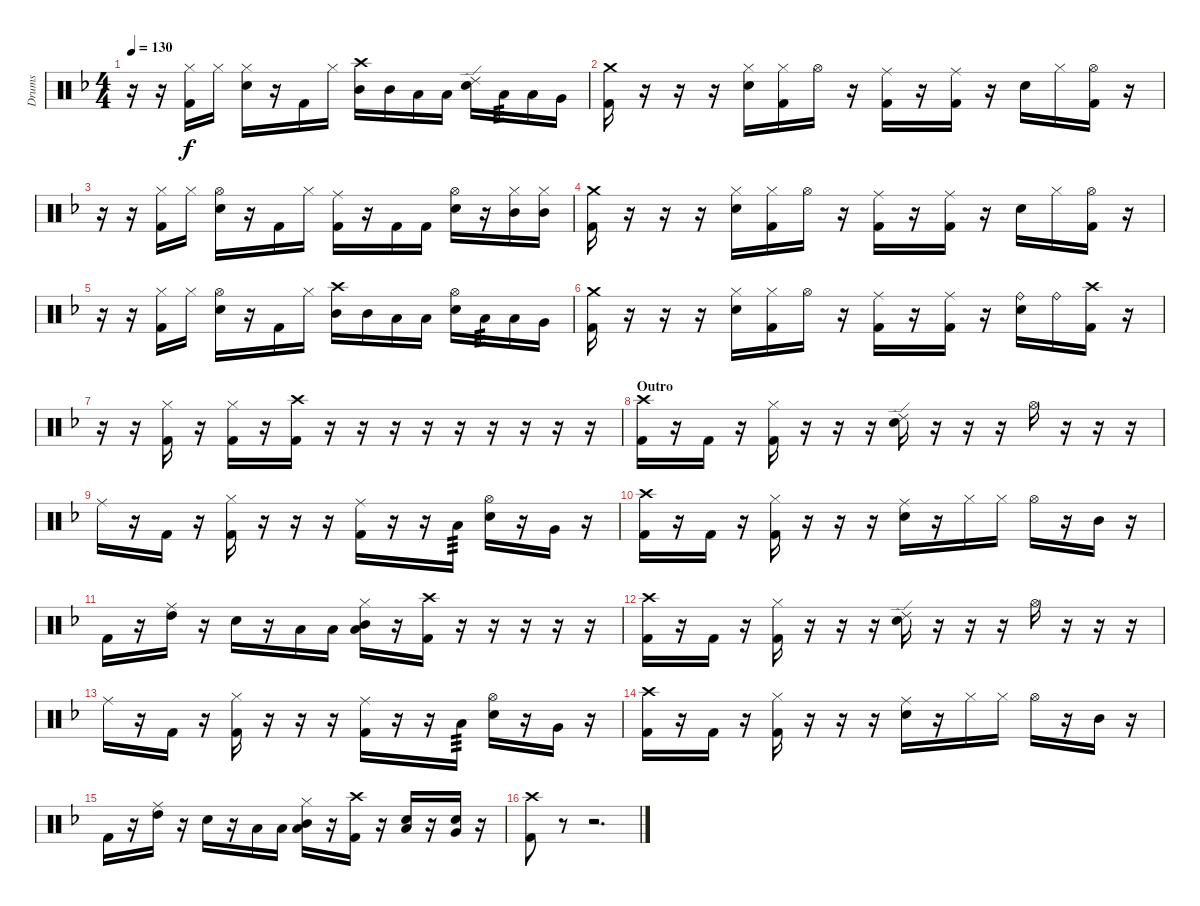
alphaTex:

\track ("Drums" "Drums") {instrument percussion}
\staff {score}
\articulation defaults
\ts (4 4)
\tempo 130
\clef neutral
\ks dminor
r.16{dy f} r.16 ("Kick (hit) 2" "Hi-Hat (closed)").16 "Hi-Hat (closed)".16 ("Snare (hit) 2" "Hi-Hat (closed)").16 r.16 "Kick (hit) 2".16 "Hi-Hat (closed)".16 ("Mid Tom (hit)" "Crash high (hit)").16 "Mid Tom (hit)".16 "Low Tom (hit)".16 "Low Tom (hit)".16 ("Snare (hit) 2" "Ride (edge) 2").16 "Low Tom (hit)".16{tp 3} "Low Tom (hit)".16 "Very Low Tom (hit)".16 |
("Kick (hit) 2" "Crash medium (hit)").16 r.16 r.16 r.16 ("Snare (hit) 2" "Hi-Hat (closed)").16 ("Kick (hit) 2" "Hi-Hat (closed)").16 "Hi-Hat (open)".16 r.16 ("Kick (hit) 2" "Ride (middle)").16 r.16 ("Kick (hit) 2" "Ride (middle)").16 r.16 "Snare (hit) 2".16 "Hi-Hat (closed)".16 ("Kick (hit) 2" "Hi-Hat (open)").16 r.16 |
r.16 r.16 ("Kick (hit) 2" "Hi-Hat (closed)").16 "Hi-Hat (closed)".16 ("Snare (hit) 2" "Hi-Hat (open)").16 r.16 "Kick (hit) 2".16 "Hi-Hat (closed)".16 ("Kick (hit) 2" "Ride (middle)").16 r.16 "Kick (hit) 2".16 "Kick (hit) 2".16 ("Snare (hit) 2" "Hi-Hat (open)").16 r.16 ("Mid Tom (hit)" "Hi-Hat (closed)").16 ("Mid Tom (hit)" "Hi-Hat (closed)").16 |
("Kick (hit) 2" "Crash medium (hit)").16 r.16 r.16 r.16 ("Snare (hit) 2" "Hi-Hat (closed)").16 ("Kick (hit) 2" "Hi-Hat (closed)").16 "Hi-Hat (open)".16 r.16 ("Kick (hit) 2" "Ride (middle)").16 r.16 ("Kick (hit) 2" "Ride (middle)").16 r.16 "Snare (hit) 2".16 "Hi-Hat (closed)".16 ("Kick (hit) 2" "Hi-Hat (open)").16 r.16 |
r.16 r.16 ("Kick (hit) 2" "Hi-Hat (closed)").16 "Hi-Hat (closed)".16 ("Snare (hit) 2" "Hi-Hat (open)").16 r.16 "Kick (hit) 2".16 "Hi-Hat (closed)".16 ("Mid Tom (hit)" "Crash high (hit)").16 "Mid Tom (hit)".16 "Low Tom (hit)".16 "Low Tom (hit)".16 ("Snare (hit) 2" "Hi-Hat (open)").16 "Low Tom (hit)".16{tp 3} "Low Tom (hit)".16 "Very Low Tom (hit)".16 |
("Kick (hit) 2" "Crash medium (hit)").16 r.16 r.16 r.16 ("Snare (hit) 2" "Hi-Hat (closed)").16 ("Kick (hit) 2" "Hi-Hat (closed)").16 "Hi-Hat (open)".16 r.16 ("Kick (hit) 2" "Ride (middle)").16 r.16 ("Kick (hit) 2" "Ride (middle)").16 r.16 ("Snare (hit) 2" "Ride (bell)").16 "Ride (bell)".16 ("Kick (hit) 2" "Crash high (hit)").16 r.16 |
r.16 r.16 ("Hi-Hat (closed)" "Kick (hit) 2").16 r.16 ("Hi-Hat (closed)" "Kick (hit) 2").16 r.16 ("Crash high (hit)" "Kick (hit) 2").16 r.16 r.16 r.16 r.16 r.16 r.16 r.16 r.16 r.16 |
\section ("" "Outro")
("Kick (hit) 2" "Crash high (hit)").16 r.16 "Kick (hit) 2".16 r.16 ("Kick (hit) 2" "Hi-Hat (closed)").16 r.16 r.16 r.16 ("Snare (hit) 2" "Ride (edge) 2").16 r.16 r.16 r.16 "Hi-Hat (open)".16 r.16 r.16 r.16 |
"Ride (middle)".16 r.16 "Kick (hit) 2".16 r.16 ("Kick (hit) 2" "Hi-Hat (closed)").16 r.16 r.16 r.16 ("Kick (hit) 2" "Ride (middle)").16 r.16 r.16 "Low Tom (hit)".16{tp 3} ("Snare (hit) 2" "Hi-Hat (open)").16 r.16 "Very Low Tom (hit)".16 r.16 |
("Kick (hit) 2" "Crash high (hit)").16 r.16 "Kick (hit) 2".16 r.16 ("Kick (hit) 2" "Hi-Hat (closed)").16 r.16 r.16 r.16 ("Snare (hit) 2" "Ride (middle)").16 r.16 "Hi-Hat (closed)".16 "Hi-Hat (closed)".16 "Hi-Hat (open)".16 r.16 "Mid Tom (hit)".16 r.16 |
"Kick (hit) 2".16 r.16 ("High Tom (hit)" "Ride (middle)").16 r.16 "Snare (hit) 2".16 r.16 "Low Tom (hit)".16 "Low Tom (hit)".16 ("Low Tom (hit)" "Mid Tom (hit)" "Hi-Hat (closed)").16 r.16 ("Crash high (hit)" "Kick (hit) 2").16 r.16 r.16 r.16 r.16 r.16 |
("Kick (hit) 2" "Crash high (hit)").16 r.16 "Kick (hit) 2".16 r.16 ("Kick (hit) 2" "Hi-Hat (closed)").16 r.16 r.16 r.16 ("Snare (hit) 2" "Ride (edge) 2").16 r.16 r.16 r.16 "Hi-Hat (open)".16 r.16 r.16 r.16 |
"Ride (middle)".16 r.16 "Kick (hit) 2".16 r.16 ("Kick (hit) 2" "Hi-Hat (closed)").16 r.16 r.16 r.16 ("Kick (hit) 2" "Ride (middle)").16 r.16 r.16 "Low Tom (hit)".16{tp 3} ("Snare (hit) 2" "Hi-Hat (open)").16 r.16 "Very Low Tom (hit)".16 r.16 |
("Kick (hit) 2" "Crash high (hit)").16 r.16 "Kick (hit) 2".16 r.16 ("Kick (hit) 2" "Hi-Hat (closed)").16 r.16 r.16 r.16 ("Snare (hit) 2" "Ride (middle)").16 r.16 "Hi-Hat (closed)".16 "Hi-Hat (closed)".16 "Hi-Hat (open)".16 r.16 "Mid Tom (hit)".16 r.16 |
"Kick (hit) 2".16 r.16 ("High Tom (hit)" "Ride (middle)").16 r.16 "Snare (hit) 2".16 r.16 "Low Tom (hit)".16 "Low Tom (hit)".16 ("Low Tom (hit)" "Mid Tom (hit)" "Hi-Hat (closed)").16 r.16 ("Crash high (hit)" "Kick (hit) 2").16 r.16 ("Snare (hit) 2" "Low Tom (hit)").16 r.16 ("Snare (hit) 2" "Very Low Tom (hit)").16 r.16 |
("Crash high (hit)" "Kick (hit) 2").8 r.8 r.2{d}
